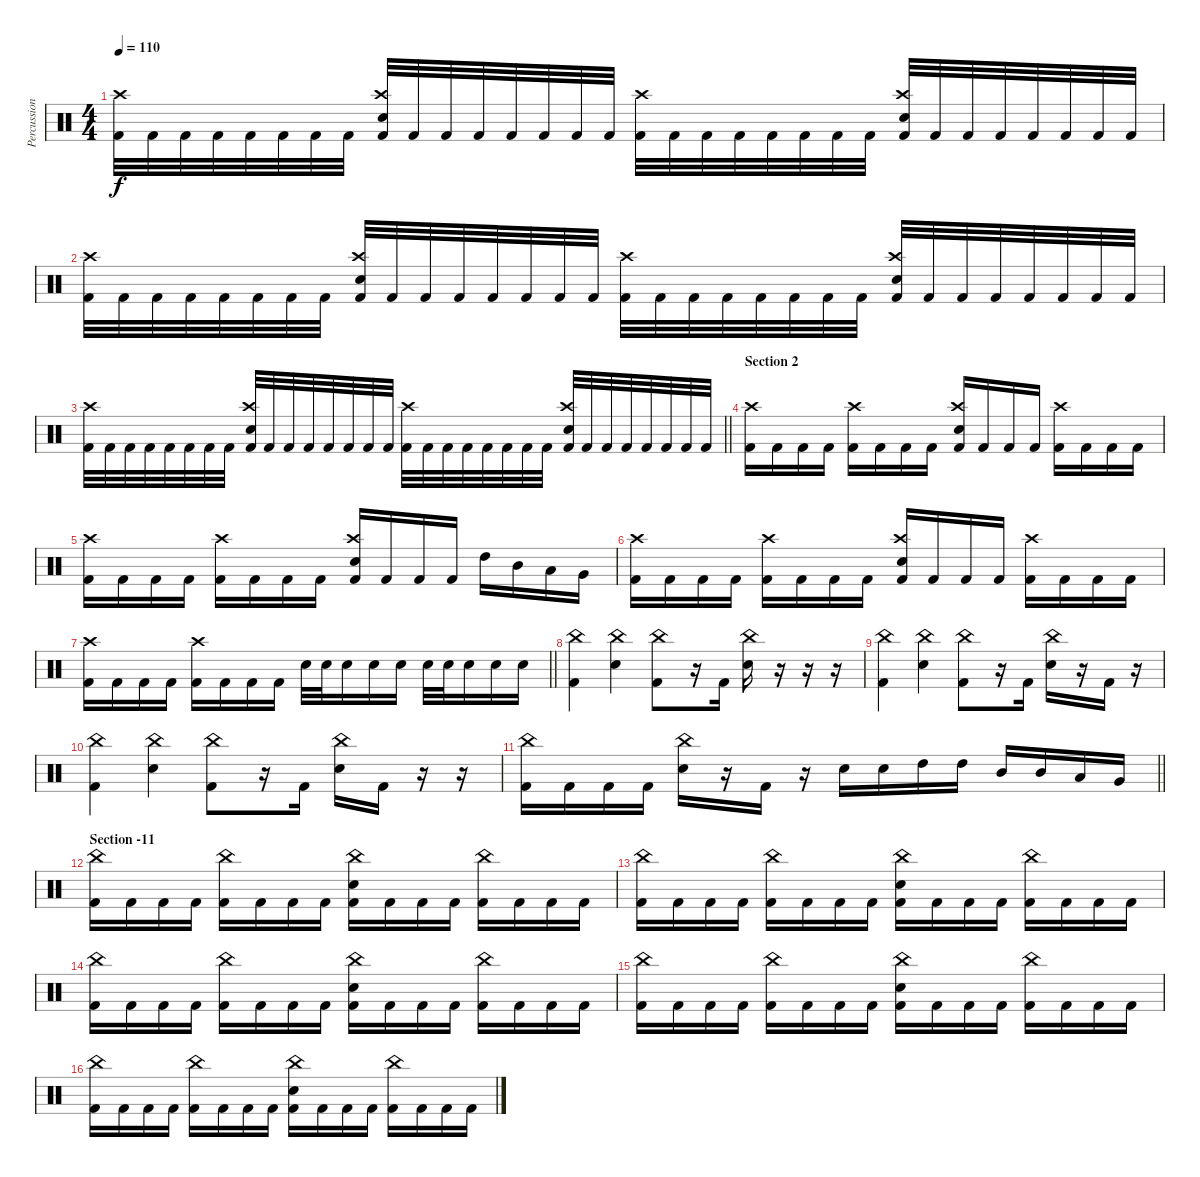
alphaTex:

\track ("Percussions" "Percussion") {instrument percussion}
\staff {score}
\articulation defaults
\ts (4 4)
\tempo 110
\clef neutral
\ks c
("Kick (hit) 2" "Crash high (hit)").32{dy f} "Kick (hit) 2".32 "Kick (hit) 2".32 "Kick (hit) 2".32 "Kick (hit) 2".32 "Kick (hit) 2".32 "Kick (hit) 2".32 "Kick (hit) 2".32 ("Kick (hit) 2" "Electric Snare (hit)" "Crash high (hit)").32 "Kick (hit) 2".32 "Kick (hit) 2".32 "Kick (hit) 2".32 "Kick (hit) 2".32 "Kick (hit) 2".32 "Kick (hit) 2".32 "Kick (hit) 2".32 ("Kick (hit) 2" "Crash high (hit)").32 "Kick (hit) 2".32 "Kick (hit) 2".32 "Kick (hit) 2".32 "Kick (hit) 2".32 "Kick (hit) 2".32 "Kick (hit) 2".32 "Kick (hit) 2".32 ("Kick (hit) 2" "Electric Snare (hit)" "Crash high (hit)").32 "Kick (hit) 2".32 "Kick (hit) 2".32 "Kick (hit) 2".32 "Kick (hit) 2".32 "Kick (hit) 2".32 "Kick (hit) 2".32 "Kick (hit) 2".32 |
("Kick (hit) 2" "Crash high (hit)").32 "Kick (hit) 2".32 "Kick (hit) 2".32 "Kick (hit) 2".32 "Kick (hit) 2".32 "Kick (hit) 2".32 "Kick (hit) 2".32 "Kick (hit) 2".32 ("Kick (hit) 2" "Electric Snare (hit)" "Crash high (hit)").32 "Kick (hit) 2".32 "Kick (hit) 2".32 "Kick (hit) 2".32 "Kick (hit) 2".32 "Kick (hit) 2".32 "Kick (hit) 2".32 "Kick (hit) 2".32 ("Kick (hit) 2" "Crash high (hit)").32 "Kick (hit) 2".32 "Kick (hit) 2".32 "Kick (hit) 2".32 "Kick (hit) 2".32 "Kick (hit) 2".32 "Kick (hit) 2".32 "Kick (hit) 2".32 ("Kick (hit) 2" "Electric Snare (hit)" "Crash high (hit)").32 "Kick (hit) 2".32 "Kick (hit) 2".32 "Kick (hit) 2".32 "Kick (hit) 2".32 "Kick (hit) 2".32 "Kick (hit) 2".32 "Kick (hit) 2".32 |
\barLineRight lightlight
("Kick (hit) 2" "Crash high (hit)").32 "Kick (hit) 2".32 "Kick (hit) 2".32 "Kick (hit) 2".32 "Kick (hit) 2".32 "Kick (hit) 2".32 "Kick (hit) 2".32 "Kick (hit) 2".32 ("Kick (hit) 2" "Electric Snare (hit)" "Crash high (hit)").32 "Kick (hit) 2".32 "Kick (hit) 2".32 "Kick (hit) 2".32 "Kick (hit) 2".32 "Kick (hit) 2".32 "Kick (hit) 2".32 "Kick (hit) 2".32 ("Kick (hit) 2" "Crash high (hit)").32 "Kick (hit) 2".32 "Kick (hit) 2".32 "Kick (hit) 2".32 "Kick (hit) 2".32 "Kick (hit) 2".32 "Kick (hit) 2".32 "Kick (hit) 2".32 ("Kick (hit) 2" "Electric Snare (hit)" "Crash high (hit)").32 "Kick (hit) 2".32 "Kick (hit) 2".32 "Kick (hit) 2".32 "Kick (hit) 2".32 "Kick (hit) 2".32 "Kick (hit) 2".32 "Kick (hit) 2".32 |
\section ("" "Section 2")
("Kick (hit) 2" "Crash high (hit)").16 "Kick (hit) 2".16 "Kick (hit) 2".16 "Kick (hit) 2".16 ("Kick (hit) 2" "Crash high (hit)").16 "Kick (hit) 2".16 "Kick (hit) 2".16 "Kick (hit) 2".16 ("Kick (hit) 2" "Electric Snare (hit)" "Crash high (hit)").16 "Kick (hit) 2".16 "Kick (hit) 2".16 "Kick (hit) 2".16 ("Kick (hit) 2" "Crash high (hit)").16 "Kick (hit) 2".16 "Kick (hit) 2".16 "Kick (hit) 2".16 |
("Kick (hit) 2" "Crash high (hit)").16 "Kick (hit) 2".16 "Kick (hit) 2".16 "Kick (hit) 2".16 ("Kick (hit) 2" "Crash high (hit)").16 "Kick (hit) 2".16 "Kick (hit) 2".16 "Kick (hit) 2".16 ("Kick (hit) 2" "Electric Snare (hit)" "Crash high (hit)").16 "Kick (hit) 2".16 "Kick (hit) 2".16 "Kick (hit) 2".16 "High Tom (hit)".16 "Mid Tom (hit)".16 "Low Tom (hit)".16 "Very Low Tom (hit)".16 |
("Kick (hit) 2" "Crash high (hit)").16 "Kick (hit) 2".16 "Kick (hit) 2".16 "Kick (hit) 2".16 ("Kick (hit) 2" "Crash high (hit)").16 "Kick (hit) 2".16 "Kick (hit) 2".16 "Kick (hit) 2".16 ("Kick (hit) 2" "Electric Snare (hit)" "Crash high (hit)").16 "Kick (hit) 2".16 "Kick (hit) 2".16 "Kick (hit) 2".16 ("Kick (hit) 2" "Crash high (hit)").16 "Kick (hit) 2".16 "Kick (hit) 2".16 "Kick (hit) 2".16 |
\barLineRight lightlight
("Kick (hit) 2" "Crash high (hit)").16 "Kick (hit) 2".16 "Kick (hit) 2".16 "Kick (hit) 2".16 ("Kick (hit) 2" "Crash high (hit)").16 "Kick (hit) 2".16 "Kick (hit) 2".16 "Kick (hit) 2".16 "Electric Snare (hit)".32 "Electric Snare (hit)".32 "Electric Snare (hit)".16 "Electric Snare (hit)".16 "Electric Snare (hit)".16 "Electric Snare (hit)".32 "Electric Snare (hit)".32 "Electric Snare (hit)".16 "Electric Snare (hit)".16 "Electric Snare (hit)".16 |
("Kick (hit) 2" "China (hit)").4 ("Electric Snare (hit)" "China (hit)").4 ("Kick (hit) 2" "China (hit)").8 r.16 "Kick (hit) 2".16 ("Electric Snare (hit)" "China (hit)").16 r.16 r.16 r.16 |
("Kick (hit) 2" "China (hit)").4 ("Electric Snare (hit)" "China (hit)").4 ("Kick (hit) 2" "China (hit)").8 r.16 "Kick (hit) 2".16 ("Electric Snare (hit)" "China (hit)").16 r.16 "Kick (hit) 2".16 r.16 |
("Kick (hit) 2" "China (hit)").4 ("Electric Snare (hit)" "China (hit)").4 ("Kick (hit) 2" "China (hit)").8 r.16 "Kick (hit) 2".16 ("Electric Snare (hit)" "China (hit)").16 "Kick (hit) 2".16 r.16 r.16 |
\barLineRight lightlight
("Kick (hit) 2" "China (hit)").16 "Kick (hit) 2".16 "Kick (hit) 2".16 "Kick (hit) 2".16 ("Electric Snare (hit)" "China (hit)").16 r.16 "Kick (hit) 2".16 r.16 "Electric Snare (hit)".16 "Electric Snare (hit)".16 "High Tom (hit)".16 "High Tom (hit)".16 "Mid Tom (hit)".16 "Mid Tom (hit)".16 "Low Tom (hit)".16 "Very Low Tom (hit)".16 |
\section ("" "Section -11")
("Kick (hit) 2" "China (hit)").16 "Kick (hit) 2".16 "Kick (hit) 2".16 "Kick (hit) 2".16 ("Kick (hit) 2" "China (hit)").16 "Kick (hit) 2".16 "Kick (hit) 2".16 "Kick (hit) 2".16 ("Kick (hit) 2" "Electric Snare (hit)" "China (hit)").16 "Kick (hit) 2".16 "Kick (hit) 2".16 "Kick (hit) 2".16 ("Kick (hit) 2" "China (hit)").16 "Kick (hit) 2".16 "Kick (hit) 2".16 "Kick (hit) 2".16 |
("Kick (hit) 2" "China (hit)").16 "Kick (hit) 2".16 "Kick (hit) 2".16 "Kick (hit) 2".16 ("Kick (hit) 2" "China (hit)").16 "Kick (hit) 2".16 "Kick (hit) 2".16 "Kick (hit) 2".16 ("Kick (hit) 2" "Electric Snare (hit)" "China (hit)").16 "Kick (hit) 2".16 "Kick (hit) 2".16 "Kick (hit) 2".16 ("Kick (hit) 2" "China (hit)").16 "Kick (hit) 2".16 "Kick (hit) 2".16 "Kick (hit) 2".16 |
("Kick (hit) 2" "China (hit)").16 "Kick (hit) 2".16 "Kick (hit) 2".16 "Kick (hit) 2".16 ("Kick (hit) 2" "China (hit)").16 "Kick (hit) 2".16 "Kick (hit) 2".16 "Kick (hit) 2".16 ("Kick (hit) 2" "Electric Snare (hit)" "China (hit)").16 "Kick (hit) 2".16 "Kick (hit) 2".16 "Kick (hit) 2".16 ("Kick (hit) 2" "China (hit)").16 "Kick (hit) 2".16 "Kick (hit) 2".16 "Kick (hit) 2".16 |
("Kick (hit) 2" "China (hit)").16 "Kick (hit) 2".16 "Kick (hit) 2".16 "Kick (hit) 2".16 ("Kick (hit) 2" "China (hit)").16 "Kick (hit) 2".16 "Kick (hit) 2".16 "Kick (hit) 2".16 ("Kick (hit) 2" "Electric Snare (hit)" "China (hit)").16 "Kick (hit) 2".16 "Kick (hit) 2".16 "Kick (hit) 2".16 ("Kick (hit) 2" "China (hit)").16 "Kick (hit) 2".16 "Kick (hit) 2".16 "Kick (hit) 2".16 |
("Kick (hit) 2" "China (hit)").16 "Kick (hit) 2".16 "Kick (hit) 2".16 "Kick (hit) 2".16 ("Kick (hit) 2" "China (hit)").16 "Kick (hit) 2".16 "Kick (hit) 2".16 "Kick (hit) 2".16 ("Kick (hit) 2" "Electric Snare (hit)" "China (hit)").16 "Kick (hit) 2".16 "Kick (hit) 2".16 "Kick (hit) 2".16 ("Kick (hit) 2" "China (hit)").16 "Kick (hit) 2".16 "Kick (hit) 2".16 "Kick (hit) 2".16
